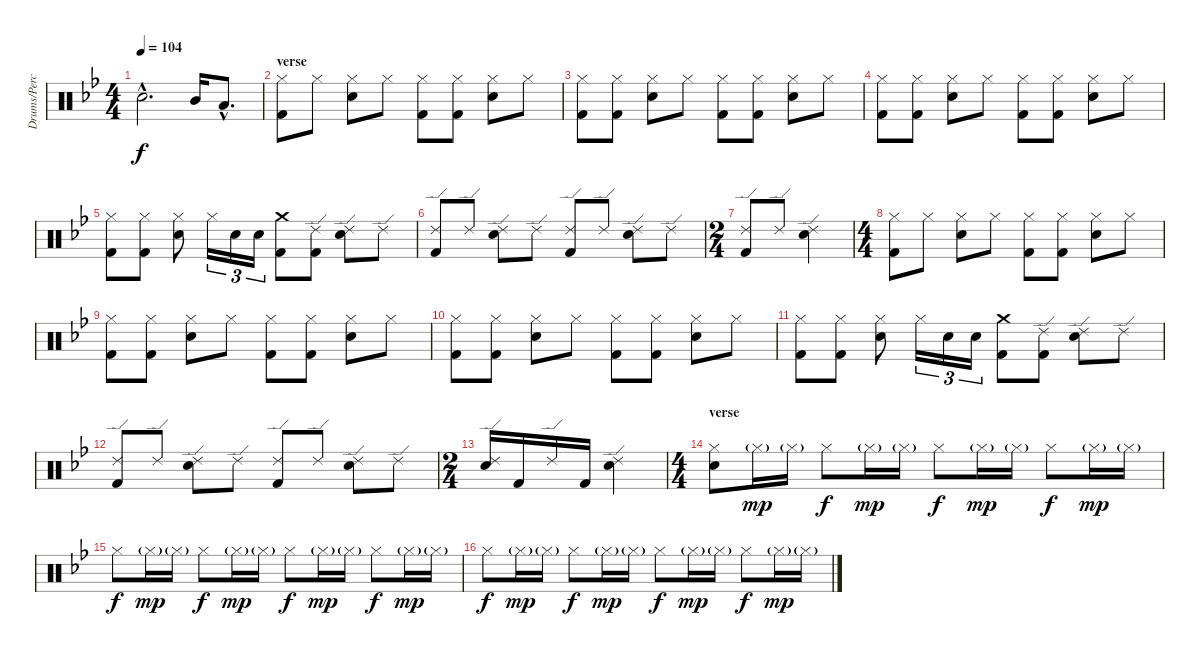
\track ("Drums/Percussion (Bengerg)" "Drums/Perc") {instrument percussion}
\staff {score}
\articulation defaults
\ts (4 4)
\tempo 104
\clef neutral
\ks bb "Electric Snare (hit)"{hac}.2{d dy f} "Mid Tom (hit)".16 "Low Tom (hit)"{hac}.8{d}
|
\section ("" "verse")
("Hi-Hat (closed)" "Kick (hit) 2").8 "Hi-Hat (closed)".8 ("Hi-Hat (closed)" "Electric Snare (hit)").8 "Hi-Hat (closed)".8 ("Hi-Hat (closed)" "Kick (hit) 2").8 ("Hi-Hat (closed)" "Kick (hit) 2").8 ("Hi-Hat (closed)" "Electric Snare (hit)").8 "Hi-Hat (closed)".8 |
("Hi-Hat (closed)" "Kick (hit) 2").8 ("Hi-Hat (closed)" "Kick (hit) 2").8 ("Hi-Hat (closed)" "Electric Snare (hit)").8 "Hi-Hat (closed)".8 ("Hi-Hat (closed)" "Kick (hit) 2").8 ("Hi-Hat (closed)" "Kick (hit) 2").8 ("Hi-Hat (closed)" "Electric Snare (hit)").8 "Hi-Hat (closed)".8 |
("Hi-Hat (closed)" "Kick (hit) 2").8 ("Hi-Hat (closed)" "Kick (hit) 2").8 ("Hi-Hat (closed)" "Electric Snare (hit)").8 "Hi-Hat (closed)".8 ("Hi-Hat (closed)" "Kick (hit) 2").8 ("Hi-Hat (closed)" "Kick (hit) 2").8 ("Hi-Hat (closed)" "Electric Snare (hit)").8 "Hi-Hat (closed)".8 |
("Hi-Hat (closed)" "Kick (hit) 2").8 ("Hi-Hat (closed)" "Kick (hit) 2").8 ("Hi-Hat (closed)" "Electric Snare (hit)").8 "Hi-Hat (closed)".16{tu (3 2)} "Electric Snare (hit)".16{tu (3 2)} "Electric Snare (hit)".16{tu (3 2)} ("Crash medium (hit)" "Kick (hit) 2").8 ("Ride (edge) 2" "Kick (hit) 2").8 ("Ride (edge) 2" "Electric Snare (hit)").8 "Ride (edge) 2".8 |
("Ride (edge) 2" "Kick (hit) 2").8 "Ride (edge) 2".8 ("Ride (edge) 2" "Electric Snare (hit)").8 "Ride (edge) 2".8 ("Ride (edge) 2" "Kick (hit) 2").8 "Ride (edge) 2".8 ("Ride (edge) 2" "Electric Snare (hit)").8 "Ride (edge) 2".8 |
\ts (2 4)
("Ride (edge) 2" "Kick (hit) 2").8 "Ride (edge) 2".8 ("Ride (edge) 2" "Electric Snare (hit)").4 |
\ts (4 4)
("Hi-Hat (closed)" "Kick (hit) 2").8 "Hi-Hat (closed)".8 ("Hi-Hat (closed)" "Electric Snare (hit)").8 "Hi-Hat (closed)".8 ("Hi-Hat (closed)" "Kick (hit) 2").8 ("Hi-Hat (closed)" "Kick (hit) 2").8 ("Hi-Hat (closed)" "Electric Snare (hit)").8 "Hi-Hat (closed)".8 |
("Hi-Hat (closed)" "Kick (hit) 2").8 ("Hi-Hat (closed)" "Kick (hit) 2").8 ("Hi-Hat (closed)" "Electric Snare (hit)").8 "Hi-Hat (closed)".8 ("Hi-Hat (closed)" "Kick (hit) 2").8 ("Hi-Hat (closed)" "Kick (hit) 2").8 ("Hi-Hat (closed)" "Electric Snare (hit)").8 "Hi-Hat (closed)".8 |
("Hi-Hat (closed)" "Kick (hit) 2").8 ("Hi-Hat (closed)" "Kick (hit) 2").8 ("Hi-Hat (closed)" "Electric Snare (hit)").8 "Hi-Hat (closed)".8 ("Hi-Hat (closed)" "Kick (hit) 2").8 ("Hi-Hat (closed)" "Kick (hit) 2").8 ("Hi-Hat (closed)" "Electric Snare (hit)").8 "Hi-Hat (closed)".8 |
("Hi-Hat (closed)" "Kick (hit) 2").8 ("Hi-Hat (closed)" "Kick (hit) 2").8 ("Hi-Hat (closed)" "Electric Snare (hit)").8 "Hi-Hat (closed)".16{tu (3 2)} "Electric Snare (hit)".16{tu (3 2)} "Electric Snare (hit)".16{tu (3 2)} ("Crash medium (hit)" "Kick (hit) 2").8 ("Ride (edge) 2" "Kick (hit) 2").8 ("Ride (edge) 2" "Electric Snare (hit)").8 "Ride (edge) 2".8 |
("Ride (edge) 2" "Kick (hit) 2").8 "Ride (edge) 2".8 ("Ride (edge) 2" "Electric Snare (hit)").8 "Ride (edge) 2".8 ("Ride (edge) 2" "Kick (hit) 2").8 "Ride (edge) 2".8 ("Ride (edge) 2" "Electric Snare (hit)").8 "Ride (edge) 2".8 |
\ts (2 4)
("Ride (edge) 2" "Electric Snare (hit)").16 "Kick (hit) 2".16 "Ride (edge) 2".16 "Kick (hit) 2".16 ("Ride (edge) 2" "Electric Snare (hit)").4 |
\ts (4 4)
\section ("" "verse")
("Hi-Hat (closed)" "Electric Snare (hit)").8 "Hi-Hat (closed)"{g}.16{dy mp} "Hi-Hat (closed)"{g}.16 "Hi-Hat (closed)".8{dy f} "Hi-Hat (closed)"{g}.16{dy mp} "Hi-Hat (closed)"{g}.16 "Hi-Hat (closed)".8{dy f} "Hi-Hat (closed)"{g}.16{dy mp} "Hi-Hat (closed)"{g}.16 "Hi-Hat (closed)".8{dy f} "Hi-Hat (closed)"{g}.16{dy mp} "Hi-Hat (closed)"{g}.16 |
"Hi-Hat (closed)".8{dy f} "Hi-Hat (closed)"{g}.16{dy mp} "Hi-Hat (closed)"{g}.16 "Hi-Hat (closed)".8{dy f} "Hi-Hat (closed)"{g}.16{dy mp} "Hi-Hat (closed)"{g}.16 "Hi-Hat (closed)".8{dy f} "Hi-Hat (closed)"{g}.16{dy mp} "Hi-Hat (closed)"{g}.16 "Hi-Hat (closed)".8{dy f} "Hi-Hat (closed)"{g}.16{dy mp} "Hi-Hat (closed)"{g}.16 |
"Hi-Hat (closed)".8{dy f} "Hi-Hat (closed)"{g}.16{dy mp} "Hi-Hat (closed)"{g}.16 "Hi-Hat (closed)".8{dy f} "Hi-Hat (closed)"{g}.16{dy mp} "Hi-Hat (closed)"{g}.16 "Hi-Hat (closed)".8{dy f} "Hi-Hat (closed)"{g}.16{dy mp} "Hi-Hat (closed)"{g}.16 "Hi-Hat (closed)".8{dy f} "Hi-Hat (closed)"{g}.16{dy mp} "Hi-Hat (closed)"{g}.16
